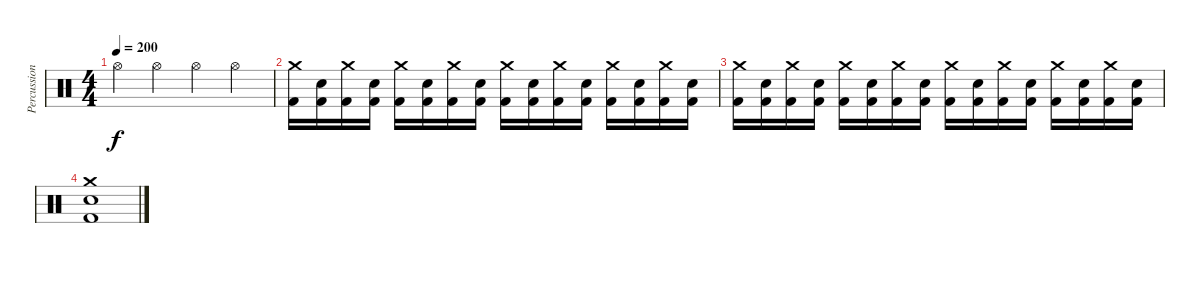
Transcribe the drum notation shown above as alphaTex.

\track ("Percussion" "Percussion") {instrument percussion}
\staff {score}
\articulation defaults
\ts (4 4)
\tempo 200
\clef neutral
\ks c "Hi-Hat (open)".4{dy f} "Hi-Hat (open)".4 "Hi-Hat (open)".4 "Hi-Hat (open)".4
|
("Crash medium (hit)" "Kick (hit) 2").16 ("Electric Snare (hit)" "Kick (hit) 2").16 ("Crash medium (hit)" "Kick (hit) 2").16 ("Electric Snare (hit)" "Kick (hit) 2").16 ("Crash medium (hit)" "Kick (hit) 2").16 ("Electric Snare (hit)" "Kick (hit) 2").16 ("Crash medium (hit)" "Kick (hit) 2").16 ("Electric Snare (hit)" "Kick (hit) 2").16 ("Crash medium (hit)" "Kick (hit) 2").16 ("Electric Snare (hit)" "Kick (hit) 2").16 ("Crash medium (hit)" "Kick (hit) 2").16 ("Electric Snare (hit)" "Kick (hit) 2").16 ("Crash medium (hit)" "Kick (hit) 2").16 ("Electric Snare (hit)" "Kick (hit) 2").16 ("Crash medium (hit)" "Kick (hit) 2").16 ("Electric Snare (hit)" "Kick (hit) 2").16 |
("Crash medium (hit)" "Kick (hit) 2").16 ("Electric Snare (hit)" "Kick (hit) 2").16 ("Crash medium (hit)" "Kick (hit) 2").16 ("Electric Snare (hit)" "Kick (hit) 2").16 ("Crash medium (hit)" "Kick (hit) 2").16 ("Electric Snare (hit)" "Kick (hit) 2").16 ("Crash medium (hit)" "Kick (hit) 2").16 ("Electric Snare (hit)" "Kick (hit) 2").16 ("Crash medium (hit)" "Kick (hit) 2").16 ("Electric Snare (hit)" "Kick (hit) 2").16 ("Crash medium (hit)" "Kick (hit) 2").16 ("Electric Snare (hit)" "Kick (hit) 2").16 ("Crash medium (hit)" "Kick (hit) 2").16 ("Electric Snare (hit)" "Kick (hit) 2").16 ("Crash medium (hit)" "Kick (hit) 2").16 ("Electric Snare (hit)" "Kick (hit) 2").16 |
("Crash medium (hit)" "Electric Snare (hit)" "Kick (hit) 2").1
